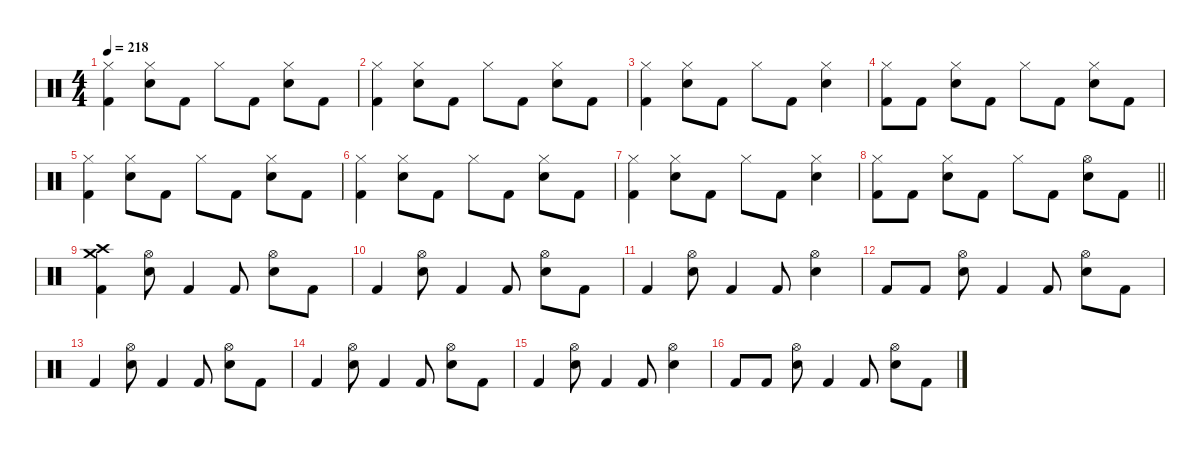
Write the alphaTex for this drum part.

\defaultSystemsLayout 4
\hideDynamics
\bracketExtendMode nobrackets
\singleTrackTrackNamePolicy hidden
\multiTrackTrackNamePolicy hidden
\firstSystemTrackNameMode fullname
\otherSystemsTrackNameOrientation horizontal
\track ("Drums" "drm.") {defaultSystemsLayout 4 instrument percussion}
\staff {score}
\articulation defaults
\ts (4 4)
\tempo 218
\clef neutral
\ks c
("Hi-Hat (closed)" "Kick (hit) 2").4{dy mp beam Down} ("Hi-Hat (closed)" "Snare (hit) 2").8{dy f beam Down} "Kick (hit) 2".8{beam Down} "Hi-Hat (closed)".8{dy p beam Down} "Kick (hit) 2".8{dy f beam Down} ("Hi-Hat (closed)" "Snare (hit) 2").8{beam Down} "Kick (hit) 2".8{dy mp beam Down} |
("Hi-Hat (closed)" "Kick (hit) 2").4{dy p beam Down} ("Hi-Hat (closed)" "Snare (hit) 2").8{dy f beam Down} "Kick (hit) 2".8{beam Down} "Hi-Hat (closed)".8{dy p beam Down} "Kick (hit) 2".8{dy f beam Down} ("Hi-Hat (closed)" "Snare (hit) 2").8{beam Down} "Kick (hit) 2".8{dy mp beam Down} |
("Hi-Hat (closed)" "Kick (hit) 2").4{dy p beam Down} ("Hi-Hat (closed)" "Snare (hit) 2").8{dy f beam Down} "Kick (hit) 2".8{beam Down} "Hi-Hat (closed)".8{dy p beam Down} "Kick (hit) 2".8{dy f beam Down} ("Hi-Hat (closed)" "Snare (hit) 2").4{beam Down} |
("Hi-Hat (closed)" "Kick (hit) 2").8{dy p beam Down} "Kick (hit) 2".8{dy f beam Down} ("Hi-Hat (closed)" "Snare (hit) 2").8{beam Down} "Kick (hit) 2".8{beam Down} "Hi-Hat (closed)".8{dy p beam Down} "Kick (hit) 2".8{dy f beam Down} ("Hi-Hat (closed)" "Snare (hit) 2").8{beam Down} "Kick (hit) 2".8{beam Down} |
("Hi-Hat (closed)" "Kick (hit) 2").4{dy p beam Down} ("Hi-Hat (closed)" "Snare (hit) 2").8{dy f beam Down} "Kick (hit) 2".8{beam Down} "Hi-Hat (closed)".8{dy p beam Down} "Kick (hit) 2".8{dy f beam Down} ("Hi-Hat (closed)" "Snare (hit) 2").8{beam Down} "Kick (hit) 2".8{dy mp beam Down} |
("Hi-Hat (closed)" "Kick (hit) 2").4{dy p beam Down} ("Hi-Hat (closed)" "Snare (hit) 2").8{dy f beam Down} "Kick (hit) 2".8{beam Down} "Hi-Hat (closed)".8{dy p beam Down} "Kick (hit) 2".8{dy f beam Down} ("Hi-Hat (closed)" "Snare (hit) 2").8{beam Down} "Kick (hit) 2".8{dy mp beam Down} |
("Hi-Hat (closed)" "Kick (hit) 2").4{dy p beam Down} ("Hi-Hat (closed)" "Snare (hit) 2").8{dy f beam Down} "Kick (hit) 2".8{beam Down} "Hi-Hat (closed)".8{dy p beam Down} "Kick (hit) 2".8{dy f beam Down} ("Hi-Hat (closed)" "Snare (hit) 2").4{beam Down} |
\barLineRight lightlight
("Hi-Hat (closed)" "Kick (hit) 2").8{dy p beam Down} "Kick (hit) 2".8{dy f beam Down} ("Hi-Hat (closed)" "Snare (hit) 2").8{beam Down} "Kick (hit) 2".8{beam Down} "Hi-Hat (closed)".8{dy p beam Down} "Kick (hit) 2".8{dy f beam Down} ("Hi-Hat (open)" "Snare (hit) 2").8{beam Down} "Kick (hit) 2".8{beam Down} |
("Crash high (hit)" "Crash medium (hit)" "Kick (hit) 2").4{beam Down} ("Hi-Hat (open)" "Snare (hit) 2").8{beam Down} "Kick (hit) 2".4{beam Up} "Kick (hit) 2".8{beam Up} ("Hi-Hat (open)" "Snare (hit) 2").8{beam Down} "Kick (hit) 2".8{dy mp beam Down} |
"Kick (hit) 2".4{dy f beam Up} ("Hi-Hat (open)" "Snare (hit) 2").8{beam Down} "Kick (hit) 2".4{beam Up} "Kick (hit) 2".8{beam Up} ("Hi-Hat (open)" "Snare (hit) 2").8{beam Down} "Kick (hit) 2".8{dy mp beam Down} |
"Kick (hit) 2".4{dy f beam Up} ("Hi-Hat (open)" "Snare (hit) 2").8{beam Down} "Kick (hit) 2".4{beam Up} "Kick (hit) 2".8{beam Up} ("Hi-Hat (open)" "Snare (hit) 2").4{beam Down} |
"Kick (hit) 2".8{beam Up} "Kick (hit) 2".8{beam Up} ("Hi-Hat (open)" "Snare (hit) 2").8{beam Down} "Kick (hit) 2".4{beam Up} "Kick (hit) 2".8{beam Up} ("Hi-Hat (open)" "Snare (hit) 2").8{beam Down} "Kick (hit) 2".8{beam Down} |
"Kick (hit) 2".4{beam Up} ("Hi-Hat (open)" "Snare (hit) 2").8{beam Down} "Kick (hit) 2".4{beam Up} "Kick (hit) 2".8{beam Up} ("Hi-Hat (open)" "Snare (hit) 2").8{beam Down} "Kick (hit) 2".8{dy mp beam Down} |
"Kick (hit) 2".4{dy f beam Up} ("Hi-Hat (open)" "Snare (hit) 2").8{beam Down} "Kick (hit) 2".4{beam Up} "Kick (hit) 2".8{beam Up} ("Hi-Hat (open)" "Snare (hit) 2").8{beam Down} "Kick (hit) 2".8{dy mp beam Down} |
"Kick (hit) 2".4{dy f beam Up} ("Hi-Hat (open)" "Snare (hit) 2").8{beam Down} "Kick (hit) 2".4{beam Up} "Kick (hit) 2".8{beam Up} ("Hi-Hat (open)" "Snare (hit) 2").4{beam Down} |
"Kick (hit) 2".8{beam Up} "Kick (hit) 2".8{beam Up} ("Hi-Hat (open)" "Snare (hit) 2").8{beam Down} "Kick (hit) 2".4{beam Up} "Kick (hit) 2".8{beam Up} ("Hi-Hat (open)" "Snare (hit) 2").8{beam Down} "Kick (hit) 2".8{beam Down}
